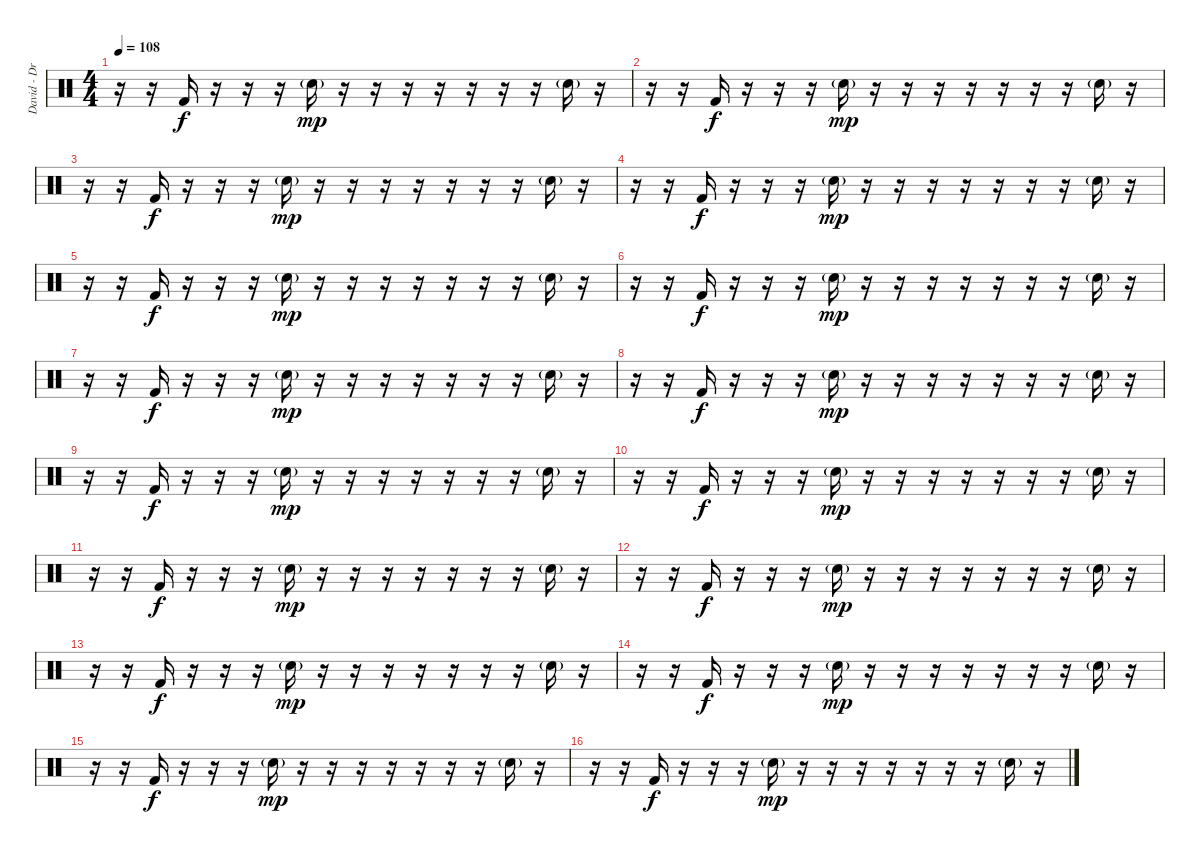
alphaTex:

\track ("David - Drums" "David - Dr") {instrument percussion}
\staff {score}
\articulation defaults
\ts (4 4)
\tempo 108
\clef neutral
\ks c
r.16{dy f} r.16 "Kick (hit) 2".16 r.16 r.16 r.16 "Hand Clap (hit)"{g}.16{dy mp} r.16 r.16 r.16 r.16 r.16 r.16 r.16 "Hand Clap (hit)"{g}.16 r.16 |
r.16 r.16 "Kick (hit) 2".16{dy f} r.16 r.16 r.16 "Hand Clap (hit)"{g}.16{dy mp} r.16 r.16 r.16 r.16 r.16 r.16 r.16 "Hand Clap (hit)"{g}.16 r.16 |
r.16 r.16 "Kick (hit) 2".16{dy f} r.16 r.16 r.16 "Hand Clap (hit)"{g}.16{dy mp} r.16 r.16 r.16 r.16 r.16 r.16 r.16 "Hand Clap (hit)"{g}.16 r.16 |
r.16 r.16 "Kick (hit) 2".16{dy f} r.16 r.16 r.16 "Hand Clap (hit)"{g}.16{dy mp} r.16 r.16 r.16 r.16 r.16 r.16 r.16 "Hand Clap (hit)"{g}.16 r.16 |
r.16 r.16 "Kick (hit) 2".16{dy f} r.16 r.16 r.16 "Hand Clap (hit)"{g}.16{dy mp} r.16 r.16 r.16 r.16 r.16 r.16 r.16 "Hand Clap (hit)"{g}.16 r.16 |
r.16 r.16 "Kick (hit) 2".16{dy f} r.16 r.16 r.16 "Hand Clap (hit)"{g}.16{dy mp} r.16 r.16 r.16 r.16 r.16 r.16 r.16 "Hand Clap (hit)"{g}.16 r.16 |
r.16 r.16 "Kick (hit) 2".16{dy f} r.16 r.16 r.16 "Hand Clap (hit)"{g}.16{dy mp} r.16 r.16 r.16 r.16 r.16 r.16 r.16 "Hand Clap (hit)"{g}.16 r.16 |
r.16 r.16 "Kick (hit) 2".16{dy f} r.16 r.16 r.16 "Hand Clap (hit)"{g}.16{dy mp} r.16 r.16 r.16 r.16 r.16 r.16 r.16 "Hand Clap (hit)"{g}.16 r.16 |
r.16 r.16 "Kick (hit) 2".16{dy f} r.16 r.16 r.16 "Hand Clap (hit)"{g}.16{dy mp} r.16 r.16 r.16 r.16 r.16 r.16 r.16 "Hand Clap (hit)"{g}.16 r.16 |
r.16 r.16 "Kick (hit) 2".16{dy f} r.16 r.16 r.16 "Hand Clap (hit)"{g}.16{dy mp} r.16 r.16 r.16 r.16 r.16 r.16 r.16 "Hand Clap (hit)"{g}.16 r.16 |
r.16 r.16 "Kick (hit) 2".16{dy f} r.16 r.16 r.16 "Hand Clap (hit)"{g}.16{dy mp} r.16 r.16 r.16 r.16 r.16 r.16 r.16 "Hand Clap (hit)"{g}.16 r.16 |
r.16 r.16 "Kick (hit) 2".16{dy f} r.16 r.16 r.16 "Hand Clap (hit)"{g}.16{dy mp} r.16 r.16 r.16 r.16 r.16 r.16 r.16 "Hand Clap (hit)"{g}.16 r.16 |
r.16 r.16 "Kick (hit) 2".16{dy f} r.16 r.16 r.16 "Hand Clap (hit)"{g}.16{dy mp} r.16 r.16 r.16 r.16 r.16 r.16 r.16 "Hand Clap (hit)"{g}.16 r.16 |
r.16 r.16 "Kick (hit) 2".16{dy f} r.16 r.16 r.16 "Hand Clap (hit)"{g}.16{dy mp} r.16 r.16 r.16 r.16 r.16 r.16 r.16 "Hand Clap (hit)"{g}.16 r.16 |
r.16 r.16 "Kick (hit) 2".16{dy f} r.16 r.16 r.16 "Hand Clap (hit)"{g}.16{dy mp} r.16 r.16 r.16 r.16 r.16 r.16 r.16 "Hand Clap (hit)"{g}.16 r.16 |
r.16 r.16 "Kick (hit) 2".16{dy f} r.16 r.16 r.16 "Hand Clap (hit)"{g}.16{dy mp} r.16 r.16 r.16 r.16 r.16 r.16 r.16 "Hand Clap (hit)"{g}.16 r.16
